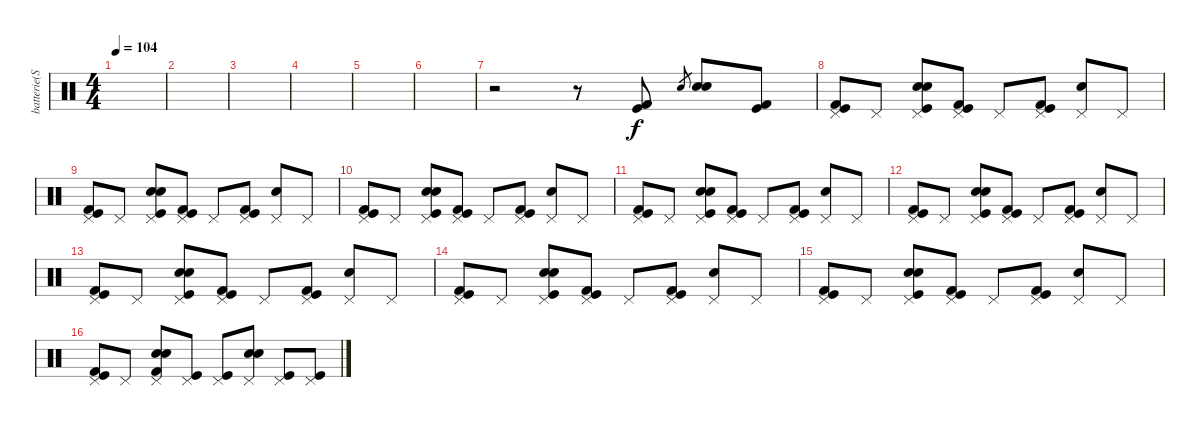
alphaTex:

\track ("batterie(Schemel)" "batterie(S") {instrument percussion}
\staff {score}
\articulation defaults
\ts (4 4)
\tempo 104
\clef neutral
\ks c
|
|
|
|
|
|
r.2 r.8 ("Kick (hit) 2" "Kick (hit)").8 "Electric Snare (hit)"{sl}.8{gr} ("Electric Snare (hit)" "Snare (hit) 2").8 ("Kick (hit)" "Kick (hit) 2").8 |
("Pedal Hi-Hat (hit)" "Kick (hit) 2" "Kick (hit)").8 "Pedal Hi-Hat (hit)".8 ("Pedal Hi-Hat (hit)" "Electric Snare (hit)" "Snare (hit) 2" "Kick (hit)").8 ("Pedal Hi-Hat (hit)" "Kick (hit) 2" "Kick (hit)").8 "Pedal Hi-Hat (hit)".8 ("Pedal Hi-Hat (hit)" "Kick (hit) 2" "Kick (hit)").8 ("Pedal Hi-Hat (hit)" "Snare (hit) 2").8 "Pedal Hi-Hat (hit)".8 |
("Pedal Hi-Hat (hit)" "Kick (hit) 2" "Kick (hit)").8 "Pedal Hi-Hat (hit)".8 ("Pedal Hi-Hat (hit)" "Electric Snare (hit)" "Snare (hit) 2" "Kick (hit)").8 ("Pedal Hi-Hat (hit)" "Kick (hit) 2" "Kick (hit)").8 "Pedal Hi-Hat (hit)".8 ("Pedal Hi-Hat (hit)" "Kick (hit) 2" "Kick (hit)").8 ("Pedal Hi-Hat (hit)" "Snare (hit) 2").8 "Pedal Hi-Hat (hit)".8 |
("Pedal Hi-Hat (hit)" "Kick (hit) 2" "Kick (hit)").8 "Pedal Hi-Hat (hit)".8 ("Pedal Hi-Hat (hit)" "Electric Snare (hit)" "Snare (hit) 2" "Kick (hit)").8 ("Pedal Hi-Hat (hit)" "Kick (hit) 2" "Kick (hit)").8 "Pedal Hi-Hat (hit)".8 ("Pedal Hi-Hat (hit)" "Kick (hit) 2" "Kick (hit)").8 ("Pedal Hi-Hat (hit)" "Snare (hit) 2").8 "Pedal Hi-Hat (hit)".8 |
("Pedal Hi-Hat (hit)" "Kick (hit) 2" "Kick (hit)").8 "Pedal Hi-Hat (hit)".8 ("Pedal Hi-Hat (hit)" "Electric Snare (hit)" "Snare (hit) 2" "Kick (hit)").8 ("Pedal Hi-Hat (hit)" "Kick (hit) 2" "Kick (hit)").8 "Pedal Hi-Hat (hit)".8 ("Pedal Hi-Hat (hit)" "Kick (hit) 2" "Kick (hit)").8 ("Pedal Hi-Hat (hit)" "Snare (hit) 2").8 "Pedal Hi-Hat (hit)".8 |
("Pedal Hi-Hat (hit)" "Kick (hit) 2" "Kick (hit)").8 "Pedal Hi-Hat (hit)".8 ("Pedal Hi-Hat (hit)" "Electric Snare (hit)" "Snare (hit) 2" "Kick (hit)").8 ("Pedal Hi-Hat (hit)" "Kick (hit) 2" "Kick (hit)").8 "Pedal Hi-Hat (hit)".8 ("Pedal Hi-Hat (hit)" "Kick (hit) 2" "Kick (hit)").8 ("Pedal Hi-Hat (hit)" "Snare (hit) 2").8 "Pedal Hi-Hat (hit)".8 |
("Pedal Hi-Hat (hit)" "Kick (hit) 2" "Kick (hit)").8 "Pedal Hi-Hat (hit)".8 ("Pedal Hi-Hat (hit)" "Electric Snare (hit)" "Snare (hit) 2" "Kick (hit)").8 ("Pedal Hi-Hat (hit)" "Kick (hit) 2" "Kick (hit)").8 "Pedal Hi-Hat (hit)".8 ("Pedal Hi-Hat (hit)" "Kick (hit) 2" "Kick (hit)").8 ("Pedal Hi-Hat (hit)" "Snare (hit) 2").8 "Pedal Hi-Hat (hit)".8 |
("Pedal Hi-Hat (hit)" "Kick (hit) 2" "Kick (hit)").8 "Pedal Hi-Hat (hit)".8 ("Pedal Hi-Hat (hit)" "Electric Snare (hit)" "Snare (hit) 2" "Kick (hit)").8 ("Pedal Hi-Hat (hit)" "Kick (hit) 2" "Kick (hit)").8 "Pedal Hi-Hat (hit)".8 ("Pedal Hi-Hat (hit)" "Kick (hit) 2" "Kick (hit)").8 ("Pedal Hi-Hat (hit)" "Snare (hit) 2").8 "Pedal Hi-Hat (hit)".8 |
("Pedal Hi-Hat (hit)" "Kick (hit) 2" "Kick (hit)").8 "Pedal Hi-Hat (hit)".8 ("Pedal Hi-Hat (hit)" "Electric Snare (hit)" "Snare (hit) 2" "Kick (hit)").8 ("Pedal Hi-Hat (hit)" "Kick (hit) 2" "Kick (hit)").8 "Pedal Hi-Hat (hit)".8 ("Pedal Hi-Hat (hit)" "Kick (hit) 2" "Kick (hit)").8 ("Pedal Hi-Hat (hit)" "Snare (hit) 2").8 "Pedal Hi-Hat (hit)".8 |
("Pedal Hi-Hat (hit)" "Kick (hit) 2" "Kick (hit)").8 "Pedal Hi-Hat (hit)".8 ("Pedal Hi-Hat (hit)" "Electric Snare (hit)" "Snare (hit) 2" "Kick (hit) 2").8 ("Pedal Hi-Hat (hit)" "Kick (hit)").8 ("Pedal Hi-Hat (hit)" "Kick (hit)").8 ("Pedal Hi-Hat (hit)" "Electric Snare (hit)" "Snare (hit) 2").8 ("Pedal Hi-Hat (hit)" "Kick (hit)").8 ("Pedal Hi-Hat (hit)" "Kick (hit)").8
